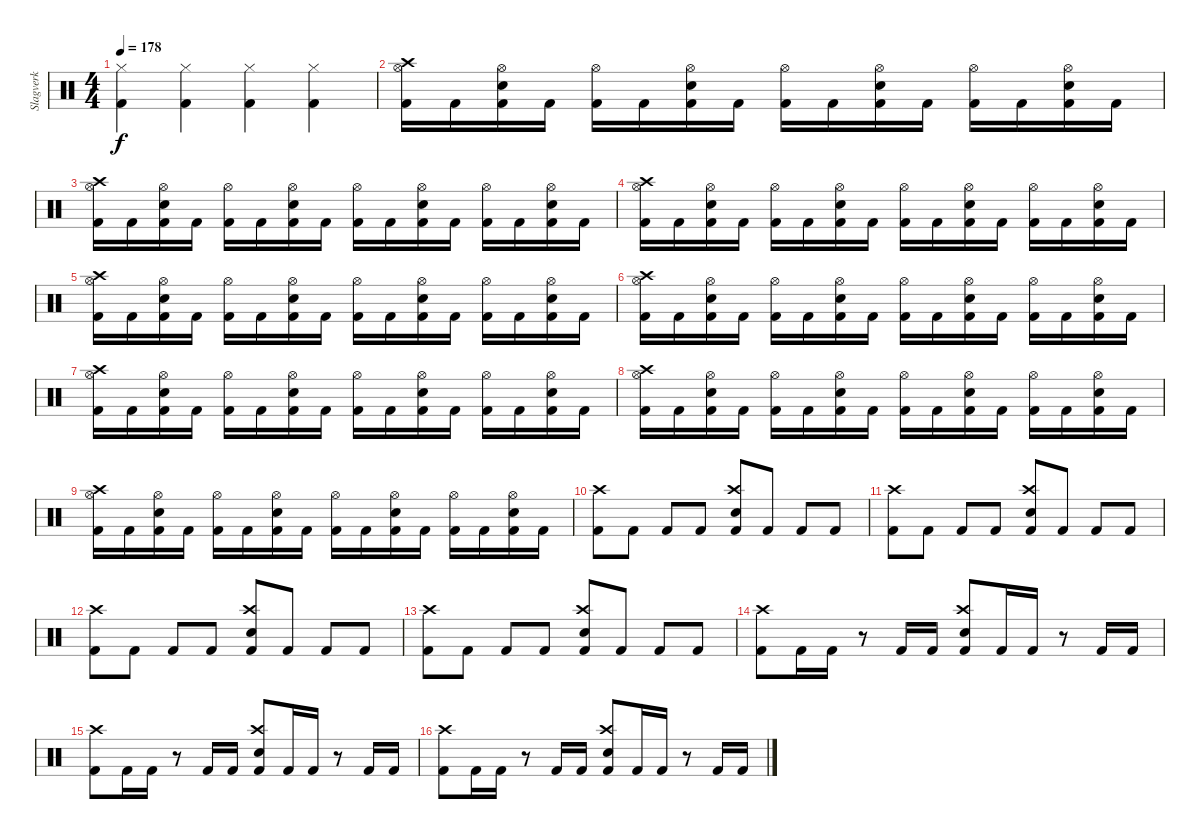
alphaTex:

\track ("Slagverk" "Slagverk") {instrument percussion}
\staff {score}
\articulation defaults
\ts (4 4)
\tempo 178
\clef neutral
\ks c
("Hi-Hat (closed)" "Kick (hit) 2").4{dy f} ("Hi-Hat (closed)" "Kick (hit) 2").4 ("Hi-Hat (closed)" "Kick (hit) 2").4 ("Hi-Hat (closed)" "Kick (hit) 2").4 |
("Crash high (hit)" "Hi-Hat (open)" "Kick (hit) 2").16 "Kick (hit) 2".16 ("Hi-Hat (open)" "Electric Snare (hit)" "Kick (hit) 2").16 "Kick (hit) 2".16 ("Hi-Hat (open)" "Kick (hit) 2").16 "Kick (hit) 2".16 ("Hi-Hat (open)" "Electric Snare (hit)" "Kick (hit) 2").16 "Kick (hit) 2".16 ("Hi-Hat (open)" "Kick (hit) 2").16 "Kick (hit) 2".16 ("Hi-Hat (open)" "Electric Snare (hit)" "Kick (hit) 2").16 "Kick (hit) 2".16 ("Hi-Hat (open)" "Kick (hit) 2").16 "Kick (hit) 2".16 ("Hi-Hat (open)" "Electric Snare (hit)" "Kick (hit) 2").16 "Kick (hit) 2".16 |
("Crash high (hit)" "Hi-Hat (open)" "Kick (hit) 2").16 "Kick (hit) 2".16 ("Hi-Hat (open)" "Electric Snare (hit)" "Kick (hit) 2").16 "Kick (hit) 2".16 ("Hi-Hat (open)" "Kick (hit) 2").16 "Kick (hit) 2".16 ("Hi-Hat (open)" "Electric Snare (hit)" "Kick (hit) 2").16 "Kick (hit) 2".16 ("Hi-Hat (open)" "Kick (hit) 2").16 "Kick (hit) 2".16 ("Hi-Hat (open)" "Electric Snare (hit)" "Kick (hit) 2").16 "Kick (hit) 2".16 ("Hi-Hat (open)" "Kick (hit) 2").16 "Kick (hit) 2".16 ("Hi-Hat (open)" "Electric Snare (hit)" "Kick (hit) 2").16 "Kick (hit) 2".16 |
("Crash high (hit)" "Hi-Hat (open)" "Kick (hit) 2").16 "Kick (hit) 2".16 ("Hi-Hat (open)" "Electric Snare (hit)" "Kick (hit) 2").16 "Kick (hit) 2".16 ("Hi-Hat (open)" "Kick (hit) 2").16 "Kick (hit) 2".16 ("Hi-Hat (open)" "Electric Snare (hit)" "Kick (hit) 2").16 "Kick (hit) 2".16 ("Hi-Hat (open)" "Kick (hit) 2").16 "Kick (hit) 2".16 ("Hi-Hat (open)" "Electric Snare (hit)" "Kick (hit) 2").16 "Kick (hit) 2".16 ("Hi-Hat (open)" "Kick (hit) 2").16 "Kick (hit) 2".16 ("Hi-Hat (open)" "Electric Snare (hit)" "Kick (hit) 2").16 "Kick (hit) 2".16 |
("Crash high (hit)" "Hi-Hat (open)" "Kick (hit) 2").16 "Kick (hit) 2".16 ("Hi-Hat (open)" "Electric Snare (hit)" "Kick (hit) 2").16 "Kick (hit) 2".16 ("Hi-Hat (open)" "Kick (hit) 2").16 "Kick (hit) 2".16 ("Hi-Hat (open)" "Electric Snare (hit)" "Kick (hit) 2").16 "Kick (hit) 2".16 ("Hi-Hat (open)" "Kick (hit) 2").16 "Kick (hit) 2".16 ("Hi-Hat (open)" "Electric Snare (hit)" "Kick (hit) 2").16 "Kick (hit) 2".16 ("Hi-Hat (open)" "Kick (hit) 2").16 "Kick (hit) 2".16 ("Hi-Hat (open)" "Electric Snare (hit)" "Kick (hit) 2").16 "Kick (hit) 2".16 |
("Crash high (hit)" "Hi-Hat (open)" "Kick (hit) 2").16 "Kick (hit) 2".16 ("Hi-Hat (open)" "Electric Snare (hit)" "Kick (hit) 2").16 "Kick (hit) 2".16 ("Hi-Hat (open)" "Kick (hit) 2").16 "Kick (hit) 2".16 ("Hi-Hat (open)" "Electric Snare (hit)" "Kick (hit) 2").16 "Kick (hit) 2".16 ("Hi-Hat (open)" "Kick (hit) 2").16 "Kick (hit) 2".16 ("Hi-Hat (open)" "Electric Snare (hit)" "Kick (hit) 2").16 "Kick (hit) 2".16 ("Hi-Hat (open)" "Kick (hit) 2").16 "Kick (hit) 2".16 ("Hi-Hat (open)" "Electric Snare (hit)" "Kick (hit) 2").16 "Kick (hit) 2".16 |
("Crash high (hit)" "Hi-Hat (open)" "Kick (hit) 2").16 "Kick (hit) 2".16 ("Hi-Hat (open)" "Electric Snare (hit)" "Kick (hit) 2").16 "Kick (hit) 2".16 ("Hi-Hat (open)" "Kick (hit) 2").16 "Kick (hit) 2".16 ("Hi-Hat (open)" "Electric Snare (hit)" "Kick (hit) 2").16 "Kick (hit) 2".16 ("Hi-Hat (open)" "Kick (hit) 2").16 "Kick (hit) 2".16 ("Hi-Hat (open)" "Electric Snare (hit)" "Kick (hit) 2").16 "Kick (hit) 2".16 ("Hi-Hat (open)" "Kick (hit) 2").16 "Kick (hit) 2".16 ("Hi-Hat (open)" "Electric Snare (hit)" "Kick (hit) 2").16 "Kick (hit) 2".16 |
("Crash high (hit)" "Hi-Hat (open)" "Kick (hit) 2").16 "Kick (hit) 2".16 ("Hi-Hat (open)" "Electric Snare (hit)" "Kick (hit) 2").16 "Kick (hit) 2".16 ("Hi-Hat (open)" "Kick (hit) 2").16 "Kick (hit) 2".16 ("Hi-Hat (open)" "Electric Snare (hit)" "Kick (hit) 2").16 "Kick (hit) 2".16 ("Hi-Hat (open)" "Kick (hit) 2").16 "Kick (hit) 2".16 ("Hi-Hat (open)" "Electric Snare (hit)" "Kick (hit) 2").16 "Kick (hit) 2".16 ("Hi-Hat (open)" "Kick (hit) 2").16 "Kick (hit) 2".16 ("Hi-Hat (open)" "Electric Snare (hit)" "Kick (hit) 2").16 "Kick (hit) 2".16 |
("Crash high (hit)" "Hi-Hat (open)" "Kick (hit) 2").16 "Kick (hit) 2".16 ("Hi-Hat (open)" "Electric Snare (hit)" "Kick (hit) 2").16 "Kick (hit) 2".16 ("Hi-Hat (open)" "Kick (hit) 2").16 "Kick (hit) 2".16 ("Hi-Hat (open)" "Electric Snare (hit)" "Kick (hit) 2").16 "Kick (hit) 2".16 ("Hi-Hat (open)" "Kick (hit) 2").16 "Kick (hit) 2".16 ("Hi-Hat (open)" "Electric Snare (hit)" "Kick (hit) 2").16 "Kick (hit) 2".16 ("Hi-Hat (open)" "Kick (hit) 2").16 "Kick (hit) 2".16 ("Hi-Hat (open)" "Electric Snare (hit)" "Kick (hit) 2").16 "Kick (hit) 2".16 |
("Crash high (hit)" "Kick (hit) 2").8 "Kick (hit) 2".8 "Kick (hit) 2".8 "Kick (hit) 2".8 ("Crash high (hit)" "Electric Snare (hit)" "Kick (hit) 2").8 "Kick (hit) 2".8 "Kick (hit) 2".8 "Kick (hit) 2".8 |
("Crash high (hit)" "Kick (hit) 2").8 "Kick (hit) 2".8 "Kick (hit) 2".8 "Kick (hit) 2".8 ("Crash high (hit)" "Electric Snare (hit)" "Kick (hit) 2").8 "Kick (hit) 2".8 "Kick (hit) 2".8 "Kick (hit) 2".8 |
("Crash high (hit)" "Kick (hit) 2").8 "Kick (hit) 2".8 "Kick (hit) 2".8 "Kick (hit) 2".8 ("Crash high (hit)" "Electric Snare (hit)" "Kick (hit) 2").8 "Kick (hit) 2".8 "Kick (hit) 2".8 "Kick (hit) 2".8 |
("Crash high (hit)" "Kick (hit) 2").8 "Kick (hit) 2".8 "Kick (hit) 2".8 "Kick (hit) 2".8 ("Crash high (hit)" "Electric Snare (hit)" "Kick (hit) 2").8 "Kick (hit) 2".8 "Kick (hit) 2".8 "Kick (hit) 2".8 |
("Crash high (hit)" "Kick (hit) 2").8 "Kick (hit) 2".16 "Kick (hit) 2".16 r.8 "Kick (hit) 2".16 "Kick (hit) 2".16 ("Crash high (hit)" "Electric Snare (hit)" "Kick (hit) 2").8 "Kick (hit) 2".16 "Kick (hit) 2".16 r.8 "Kick (hit) 2".16 "Kick (hit) 2".16 |
("Crash high (hit)" "Kick (hit) 2").8 "Kick (hit) 2".16 "Kick (hit) 2".16 r.8 "Kick (hit) 2".16 "Kick (hit) 2".16 ("Crash high (hit)" "Electric Snare (hit)" "Kick (hit) 2").8 "Kick (hit) 2".16 "Kick (hit) 2".16 r.8 "Kick (hit) 2".16 "Kick (hit) 2".16 |
("Crash high (hit)" "Kick (hit) 2").8 "Kick (hit) 2".16 "Kick (hit) 2".16 r.8 "Kick (hit) 2".16 "Kick (hit) 2".16 ("Crash high (hit)" "Electric Snare (hit)" "Kick (hit) 2").8 "Kick (hit) 2".16 "Kick (hit) 2".16 r.8 "Kick (hit) 2".16 "Kick (hit) 2".16
